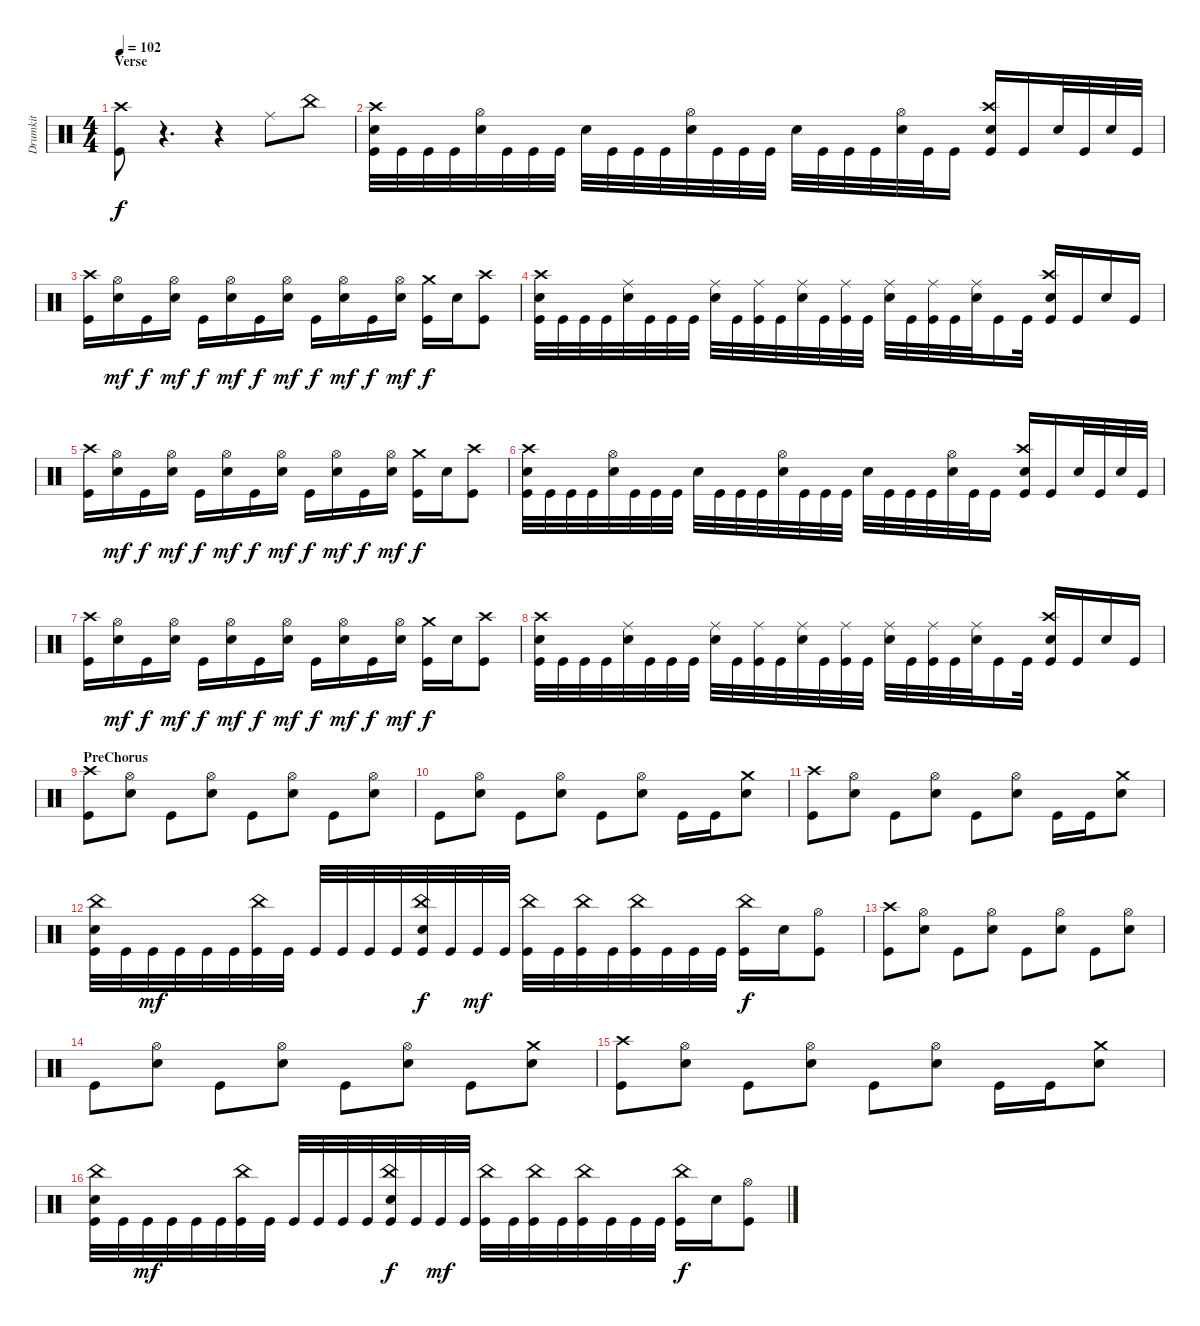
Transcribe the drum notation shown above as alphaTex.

\track ("Drumkit" "Drumkit") {instrument percussion}
\staff {score}
\articulation defaults
\ts (4 4)
\section ("" "Verse")
\tempo 102
\clef neutral
\ks c
("Kick (hit)" "Crash high (hit)").8{dy f} r.4{d} r.4 "Ride (middle)".8 "China (hit)".8 |
("Snare (hit) 2" "Kick (hit)" "Crash high (hit)").32 "Kick (hit)".32 "Kick (hit)".32 "Kick (hit)".32 ("Snare (hit) 2" "Hi-Hat (open)").32 "Kick (hit)".32 "Kick (hit)".32 "Kick (hit)".32 "Snare (hit) 2".32 "Kick (hit)".32 "Kick (hit)".32 "Kick (hit)".32 ("Snare (hit) 2" "Hi-Hat (open)").32 "Kick (hit)".32 "Kick (hit)".32 "Kick (hit)".32 "Snare (hit) 2".32 "Kick (hit)".32 "Kick (hit)".32 "Kick (hit)".32 ("Snare (hit) 2" "Hi-Hat (open)").32 "Kick (hit)".32 "Kick (hit)".16 ("Snare (hit) 2" "Kick (hit)" "Crash high (hit)").16 "Kick (hit)".16 "Snare (hit) 2".32 "Kick (hit)".32 "Snare (hit) 2".32 "Kick (hit)".32 |
("Kick (hit)" "Crash high (hit)").16 ("Snare (hit) 2" "Hi-Hat (open)").16{dy mf} "Kick (hit)".16{dy f} ("Snare (hit) 2" "Hi-Hat (open)").16{dy mf} "Kick (hit)".16{dy f} ("Snare (hit) 2" "Hi-Hat (open)").16{dy mf} "Kick (hit)".16{dy f} ("Snare (hit) 2" "Hi-Hat (open)").16{dy mf} "Kick (hit)".16{dy f} ("Snare (hit) 2" "Hi-Hat (open)").16{dy mf} "Kick (hit)".16{dy f} ("Snare (hit) 2" "Hi-Hat (open)").16{dy mf} ("Kick (hit)" "Crash medium (hit)").16{dy f} "Snare (hit) 2".16 ("Kick (hit)" "Crash high (hit)").8 |
("Snare (hit) 2" "Kick (hit)" "Crash high (hit)").32 "Kick (hit)".32 "Kick (hit)".32 "Kick (hit)".32 ("Snare (hit) 2" "Ride (middle)").32 "Kick (hit)".32 "Kick (hit)".32 "Kick (hit)".32 ("Snare (hit) 2" "Ride (middle)").32 "Kick (hit)".32 ("Kick (hit)" "Ride (middle)").32 "Kick (hit)".32 ("Snare (hit) 2" "Ride (middle)").32 "Kick (hit)".32 ("Kick (hit)" "Ride (middle)").32 "Kick (hit)".32 ("Snare (hit) 2" "Ride (middle)").32 "Kick (hit)".32 ("Kick (hit)" "Ride (middle)").32 "Kick (hit)".32 ("Snare (hit) 2" "Ride (middle)").32 "Kick (hit)".16 "Kick (hit)".32 ("Snare (hit) 2" "Crash high (hit)" "Kick (hit)").16 "Kick (hit)".16 "Snare (hit) 2".16 "Kick (hit)".16 |
("Kick (hit)" "Crash high (hit)").16 ("Snare (hit) 2" "Hi-Hat (open)").16{dy mf} "Kick (hit)".16{dy f} ("Snare (hit) 2" "Hi-Hat (open)").16{dy mf} "Kick (hit)".16{dy f} ("Snare (hit) 2" "Hi-Hat (open)").16{dy mf} "Kick (hit)".16{dy f} ("Snare (hit) 2" "Hi-Hat (open)").16{dy mf} "Kick (hit)".16{dy f} ("Snare (hit) 2" "Hi-Hat (open)").16{dy mf} "Kick (hit)".16{dy f} ("Snare (hit) 2" "Hi-Hat (open)").16{dy mf} ("Kick (hit)" "Crash medium (hit)").16{dy f} "Snare (hit) 2".16 ("Kick (hit)" "Crash high (hit)").8 |
("Snare (hit) 2" "Kick (hit)" "Crash high (hit)").32 "Kick (hit)".32 "Kick (hit)".32 "Kick (hit)".32 ("Snare (hit) 2" "Hi-Hat (open)").32 "Kick (hit)".32 "Kick (hit)".32 "Kick (hit)".32 "Snare (hit) 2".32 "Kick (hit)".32 "Kick (hit)".32 "Kick (hit)".32 ("Snare (hit) 2" "Hi-Hat (open)").32 "Kick (hit)".32 "Kick (hit)".32 "Kick (hit)".32 "Snare (hit) 2".32 "Kick (hit)".32 "Kick (hit)".32 "Kick (hit)".32 ("Snare (hit) 2" "Hi-Hat (open)").32 "Kick (hit)".32 "Kick (hit)".16 ("Snare (hit) 2" "Kick (hit)" "Crash high (hit)").16 "Kick (hit)".16 "Snare (hit) 2".32 "Kick (hit)".32 "Snare (hit) 2".32 "Kick (hit)".32 |
("Kick (hit)" "Crash high (hit)").16 ("Snare (hit) 2" "Hi-Hat (open)").16{dy mf} "Kick (hit)".16{dy f} ("Snare (hit) 2" "Hi-Hat (open)").16{dy mf} "Kick (hit)".16{dy f} ("Snare (hit) 2" "Hi-Hat (open)").16{dy mf} "Kick (hit)".16{dy f} ("Snare (hit) 2" "Hi-Hat (open)").16{dy mf} "Kick (hit)".16{dy f} ("Snare (hit) 2" "Hi-Hat (open)").16{dy mf} "Kick (hit)".16{dy f} ("Snare (hit) 2" "Hi-Hat (open)").16{dy mf} ("Kick (hit)" "Crash medium (hit)").16{dy f} "Snare (hit) 2".16 ("Kick (hit)" "Crash high (hit)").8 |
("Snare (hit) 2" "Kick (hit)" "Crash high (hit)").32 "Kick (hit)".32 "Kick (hit)".32 "Kick (hit)".32 ("Snare (hit) 2" "Ride (middle)").32 "Kick (hit)".32 "Kick (hit)".32 "Kick (hit)".32 ("Snare (hit) 2" "Ride (middle)").32 "Kick (hit)".32 ("Kick (hit)" "Ride (middle)").32 "Kick (hit)".32 ("Snare (hit) 2" "Ride (middle)").32 "Kick (hit)".32 ("Kick (hit)" "Ride (middle)").32 "Kick (hit)".32 ("Snare (hit) 2" "Ride (middle)").32 "Kick (hit)".32 ("Kick (hit)" "Ride (middle)").32 "Kick (hit)".32 ("Snare (hit) 2" "Ride (middle)").32 "Kick (hit)".16 "Kick (hit)".32 ("Snare (hit) 2" "Crash high (hit)" "Kick (hit)").16 "Kick (hit)".16 "Snare (hit) 2".16 "Kick (hit)".16 |
\section ("" "PreChorus")
("Kick (hit)" "Crash high (hit)").8 ("Snare (hit) 2" "Hi-Hat (open)").8 "Kick (hit)".8 ("Snare (hit) 2" "Hi-Hat (open)").8 "Kick (hit)".8 ("Snare (hit) 2" "Hi-Hat (open)").8 "Kick (hit)".8 ("Snare (hit) 2" "Hi-Hat (open)").8 |
"Kick (hit)".8 ("Snare (hit) 2" "Hi-Hat (open)").8 "Kick (hit)".8 ("Snare (hit) 2" "Hi-Hat (open)").8 "Kick (hit)".8 ("Snare (hit) 2" "Hi-Hat (open)").8 "Kick (hit)".16 "Kick (hit)".16 ("Snare (hit) 2" "Crash medium (hit)").8 |
("Kick (hit)" "Crash high (hit)").8 ("Snare (hit) 2" "Hi-Hat (open)").8 "Kick (hit)".8 ("Snare (hit) 2" "Hi-Hat (open)").8 "Kick (hit)".8 ("Snare (hit) 2" "Hi-Hat (open)").8 "Kick (hit)".16 "Kick (hit)".16 ("Snare (hit) 2" "Crash medium (hit)").8 |
("Kick (hit)" "Snare (hit) 2" "China (hit)").32 "Kick (hit)".32 "Kick (hit)".32{dy mf} "Kick (hit)".32 "Kick (hit)".32 "Kick (hit)".32 ("Kick (hit)" "China (hit)").32 "Kick (hit)".32 "Kick (hit)".32 "Kick (hit)".32 "Kick (hit)".32 "Kick (hit)".32 ("Kick (hit)" "Snare (hit) 2" "China (hit)").32{dy f} "Kick (hit)".32 "Kick (hit)".32{dy mf} "Kick (hit)".32 ("Kick (hit)" "China (hit)").32 "Kick (hit)".32 ("Kick (hit)" "China (hit)").32 "Kick (hit)".32 ("Kick (hit)" "China (hit)").32 "Kick (hit)".32 "Kick (hit)".32 "Kick (hit)".32 ("Kick (hit)" "China (hit)").16{dy f} "Snare (hit) 2".16 ("Kick (hit)" "Hi-Hat (open)").8 |
("Kick (hit)" "Crash high (hit)").8 ("Snare (hit) 2" "Hi-Hat (open)").8 "Kick (hit)".8 ("Snare (hit) 2" "Hi-Hat (open)").8 "Kick (hit)".8 ("Snare (hit) 2" "Hi-Hat (open)").8 "Kick (hit)".8 ("Snare (hit) 2" "Hi-Hat (open)").8 |
"Kick (hit)".8 ("Snare (hit) 2" "Hi-Hat (open)").8 "Kick (hit)".8 ("Snare (hit) 2" "Hi-Hat (open)").8 "Kick (hit)".8 ("Snare (hit) 2" "Hi-Hat (open)").8 "Kick (hit)".8 ("Snare (hit) 2" "Crash medium (hit)").8 |
("Kick (hit)" "Crash high (hit)").8 ("Snare (hit) 2" "Hi-Hat (open)").8 "Kick (hit)".8 ("Snare (hit) 2" "Hi-Hat (open)").8 "Kick (hit)".8 ("Snare (hit) 2" "Hi-Hat (open)").8 "Kick (hit)".16 "Kick (hit)".16 ("Snare (hit) 2" "Crash medium (hit)").8 |
("Kick (hit)" "Snare (hit) 2" "China (hit)").32 "Kick (hit)".32 "Kick (hit)".32{dy mf} "Kick (hit)".32 "Kick (hit)".32 "Kick (hit)".32 ("Kick (hit)" "China (hit)").32 "Kick (hit)".32 "Kick (hit)".32 "Kick (hit)".32 "Kick (hit)".32 "Kick (hit)".32 ("Kick (hit)" "Snare (hit) 2" "China (hit)").32{dy f} "Kick (hit)".32 "Kick (hit)".32{dy mf} "Kick (hit)".32 ("Kick (hit)" "China (hit)").32 "Kick (hit)".32 ("Kick (hit)" "China (hit)").32 "Kick (hit)".32 ("Kick (hit)" "China (hit)").32 "Kick (hit)".32 "Kick (hit)".32 "Kick (hit)".32 ("Kick (hit)" "China (hit)").16{dy f} "Snare (hit) 2".16 ("Kick (hit)" "Hi-Hat (open)").8
